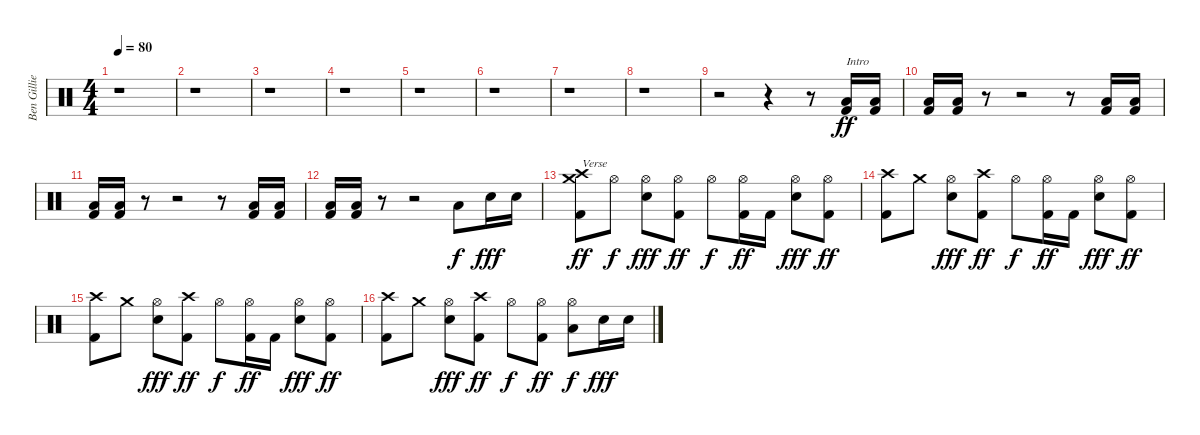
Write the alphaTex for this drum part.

\track ("Ben Gillies" "Ben Gillie") {instrument percussion}
\staff {score}
\articulation defaults
\ts (4 4)
\tempo 80
\clef neutral
\ks c
r.1{dy ff} |
r.1 |
r.1 |
r.1 |
r.1 |
r.1 |
r.1 |
r.1 |
r.2 r.4 r.8 ("Low Floor Tom (hit)" "Kick (hit) 2").16{txt "Intro"} ("Low Floor Tom (hit)" "Kick (hit) 2").16 |
("Low Floor Tom (hit)" "Kick (hit) 2").16 ("Low Floor Tom (hit)" "Kick (hit) 2").16 r.8 r.2 r.8 ("Low Floor Tom (hit)" "Kick (hit) 2").16 ("Low Floor Tom (hit)" "Kick (hit) 2").16 |
("Low Floor Tom (hit)" "Kick (hit) 2").16 ("Low Floor Tom (hit)" "Kick (hit) 2").16 r.8 r.2 r.8 ("Low Floor Tom (hit)" "Kick (hit) 2").16 ("Low Floor Tom (hit)" "Kick (hit) 2").16 |
("Low Floor Tom (hit)" "Kick (hit) 2").16 ("Low Floor Tom (hit)" "Kick (hit) 2").16 r.8 r.2 "Low Floor Tom (hit)".8{dy f} "Electric Snare (hit)".16{dy fff} "Electric Snare (hit)".16 |
("Crash high (hit)" "Crash medium (hit)" "Kick (hit) 2").8{txt "Verse" dy ff} "Hi-Hat (open)".8{dy f} ("Hi-Hat (open)" "Electric Snare (hit)").8{dy fff} ("Hi-Hat (open)" "Kick (hit) 2").8{dy ff} "Hi-Hat (open)".8{dy f} ("Hi-Hat (open)" "Kick (hit) 2").16{dy ff} "Kick (hit) 2".16 ("Hi-Hat (open)" "Electric Snare (hit)").8{dy fff} ("Hi-Hat (open)" "Kick (hit) 2").8{dy ff} |
("Crash high (hit)" "Kick (hit) 2").8 "Crash medium (hit)".8 ("Hi-Hat (open)" "Electric Snare (hit)").8{dy fff} ("Crash high (hit)" "Kick (hit) 2").8{dy ff} "Hi-Hat (open)".8{dy f} ("Hi-Hat (open)" "Kick (hit) 2").16{dy ff} "Kick (hit) 2".16 ("Hi-Hat (open)" "Electric Snare (hit)").8{dy fff} ("Hi-Hat (open)" "Kick (hit) 2").8{dy ff} |
("Crash high (hit)" "Kick (hit) 2").8 "Crash medium (hit)".8 ("Hi-Hat (open)" "Electric Snare (hit)").8{dy fff} ("Crash high (hit)" "Kick (hit) 2").8{dy ff} "Hi-Hat (open)".8{dy f} ("Hi-Hat (open)" "Kick (hit) 2").16{dy ff} "Kick (hit) 2".16 ("Hi-Hat (open)" "Electric Snare (hit)").8{dy fff} ("Hi-Hat (open)" "Kick (hit) 2").8{dy ff} |
("Crash high (hit)" "Kick (hit) 2").8 "Crash medium (hit)".8 ("Hi-Hat (open)" "Electric Snare (hit)").8{dy fff} ("Crash high (hit)" "Kick (hit) 2").8{dy ff} "Hi-Hat (open)".8{dy f} ("Hi-Hat (open)" "Kick (hit) 2").8{dy ff} ("Low Floor Tom (hit)" "Hi-Hat (open)").8{dy f} "Electric Snare (hit)".16{dy fff} "Electric Snare (hit)".16
